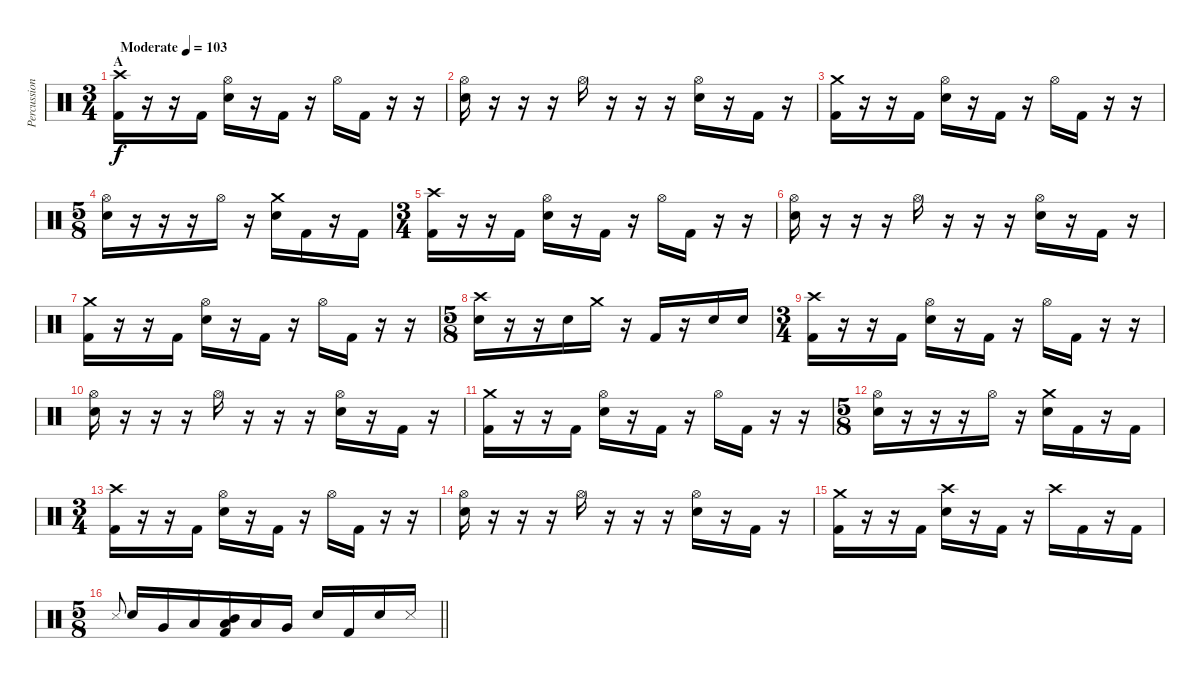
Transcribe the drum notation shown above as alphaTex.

\track ("Percussion" "Percussion") {instrument percussion}
\staff {score}
\articulation defaults
\ts (3 4)
\section ("" "A")
\tempo (103 "Moderate")
\clef neutral
\ks c
("Crash high (hit)" "Kick (hit) 2").16{dy f} r.16 r.16 "Kick (hit) 2".16 ("Hi-Hat (open)" "Snare (hit) 2").16 r.16 "Kick (hit) 2".16 r.16 "Hi-Hat (open)".16 "Kick (hit) 2".16 r.16 r.16 |
("Hi-Hat (open)" "Snare (hit) 2").16 r.16 r.16 r.16 "Hi-Hat (open)".16 r.16 r.16 r.16 ("Hi-Hat (open)" "Snare (hit) 2").16 r.16 "Kick (hit) 2".16 r.16 |
("Crash medium (hit)" "Kick (hit) 2").16 r.16 r.16 "Kick (hit) 2".16 ("Hi-Hat (open)" "Snare (hit) 2").16 r.16 "Kick (hit) 2".16 r.16 "Hi-Hat (open)".16 "Kick (hit) 2".16 r.16 r.16 |
\ts (5 8)
("Hi-Hat (open)" "Snare (hit) 2").16 r.16 r.16 r.16 "Hi-Hat (open)".16 r.16 ("Crash medium (hit)" "Snare (hit) 2").16 "Kick (hit) 2".16 r.16 "Kick (hit) 2".16 |
\ts (3 4)
("Crash high (hit)" "Kick (hit) 2").16 r.16 r.16 "Kick (hit) 2".16 ("Hi-Hat (open)" "Snare (hit) 2").16 r.16 "Kick (hit) 2".16 r.16 "Hi-Hat (open)".16 "Kick (hit) 2".16 r.16 r.16 |
("Hi-Hat (open)" "Snare (hit) 2").16 r.16 r.16 r.16 "Hi-Hat (open)".16 r.16 r.16 r.16 ("Hi-Hat (open)" "Snare (hit) 2").16 r.16 "Kick (hit) 2".16 r.16 |
("Crash medium (hit)" "Kick (hit) 2").16 r.16 r.16 "Kick (hit) 2".16 ("Hi-Hat (open)" "Snare (hit) 2").16 r.16 "Kick (hit) 2".16 r.16 "Hi-Hat (open)".16 "Kick (hit) 2".16 r.16 r.16 |
\ts (5 8)
("Crash high (hit)" "Snare (hit) 2").16 r.16 r.16 "Snare (hit) 2".16 "Crash medium (hit)".16 r.16 "Kick (hit) 2".16 r.16 "Snare (hit) 2".16 "Snare (hit) 2".16 |
\ts (3 4)
("Crash high (hit)" "Kick (hit) 2").16 r.16 r.16 "Kick (hit) 2".16 ("Hi-Hat (open)" "Snare (hit) 2").16 r.16 "Kick (hit) 2".16 r.16 "Hi-Hat (open)".16 "Kick (hit) 2".16 r.16 r.16 |
("Hi-Hat (open)" "Snare (hit) 2").16 r.16 r.16 r.16 "Hi-Hat (open)".16 r.16 r.16 r.16 ("Hi-Hat (open)" "Snare (hit) 2").16 r.16 "Kick (hit) 2".16 r.16 |
("Crash medium (hit)" "Kick (hit) 2").16 r.16 r.16 "Kick (hit) 2".16 ("Hi-Hat (open)" "Snare (hit) 2").16 r.16 "Kick (hit) 2".16 r.16 "Hi-Hat (open)".16 "Kick (hit) 2".16 r.16 r.16 |
\ts (5 8)
("Hi-Hat (open)" "Snare (hit) 2").16 r.16 r.16 r.16 "Hi-Hat (open)".16 r.16 ("Crash medium (hit)" "Snare (hit) 2").16 "Kick (hit) 2".16 r.16 "Kick (hit) 2".16 |
\ts (3 4)
("Crash high (hit)" "Kick (hit) 2").16 r.16 r.16 "Kick (hit) 2".16 ("Hi-Hat (open)" "Snare (hit) 2").16 r.16 "Kick (hit) 2".16 r.16 "Hi-Hat (open)".16 "Kick (hit) 2".16 r.16 r.16 |
("Hi-Hat (open)" "Snare (hit) 2").16 r.16 r.16 r.16 "Hi-Hat (open)".16 r.16 r.16 r.16 ("Hi-Hat (open)" "Snare (hit) 2").16 r.16 "Kick (hit) 2".16 r.16 |
("Crash medium (hit)" "Kick (hit) 2").16 r.16 r.16 "Kick (hit) 2".16 ("Crash high (hit)" "Snare (hit) 2").16 r.16 "Kick (hit) 2".16 r.16 "Crash high (hit)".16 "Kick (hit) 2".16 r.16 "Kick (hit) 2".16 |
\ts (5 8)
\barLineRight lightlight "Metronome (hit)".8{gr onbeat} "Snare (hit) 2".16 "Very Low Tom (hit)".16 "Low Tom (hit)".16
("Mid Tom (hit)" "Low Floor Tom (hit)" "Kick (hit) 2").16 "Low Tom (hit)".16 "Very Low Tom (hit)".16 "Snare (hit) 2".16 "Kick (hit) 2".16 "Snare (hit) 2".16 "Metronome (hit)".16
